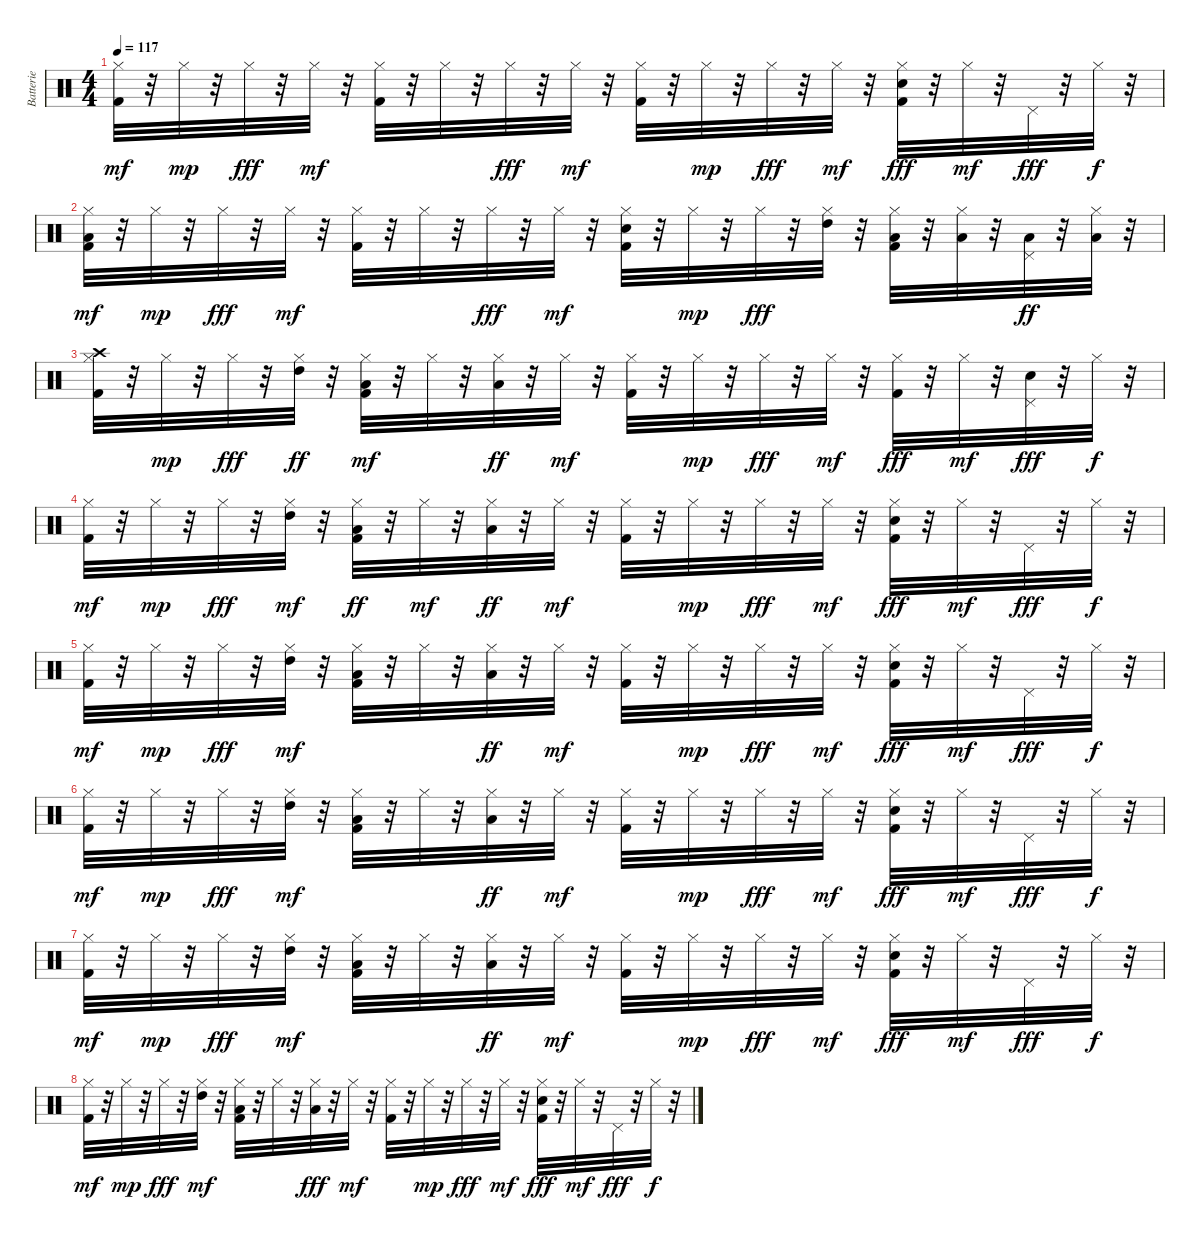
\track ("Batterie" "Batterie") {instrument percussion}
\staff {score}
\articulation defaults
\ts (4 4)
\tempo 117
\clef neutral
\ks c
("Kick (hit) 2" "Hi-Hat (closed)").32{dy mf} r.32 "Hi-Hat (closed)".32{dy mp} r.32 "Hi-Hat (closed)".32{dy fff} r.32 "Hi-Hat (closed)".32{dy mf} r.32 ("Kick (hit) 2" "Hi-Hat (closed)").32 r.32 "Hi-Hat (closed)".32 r.32 "Hi-Hat (closed)".32{dy fff} r.32 "Hi-Hat (closed)".32{dy mf} r.32 ("Kick (hit) 2" "Hi-Hat (closed)").32 r.32 "Hi-Hat (closed)".32{dy mp} r.32 "Hi-Hat (closed)".32{dy fff} r.32 "Hi-Hat (closed)".32{dy mf} r.32 ("Kick (hit) 2" "Electric Snare (hit)" "Hi-Hat (closed)").32{dy fff} r.32 "Hi-Hat (closed)".32{dy mf} r.32 "Pedal Hi-Hat (hit)".32{dy fff} r.32 "Hi-Hat (closed)".32{dy f} r.32 |
("Kick (hit) 2" "Hi-Hat (closed)" "Low Floor Tom (hit)").32{dy mf} r.32 "Hi-Hat (closed)".32{dy mp} r.32 "Hi-Hat (closed)".32{dy fff} r.32 "Hi-Hat (closed)".32{dy mf} r.32 ("Kick (hit) 2" "Hi-Hat (closed)").32 r.32 "Hi-Hat (closed)".32 r.32 "Hi-Hat (closed)".32{dy fff} r.32 "Hi-Hat (closed)".32{dy mf} r.32 ("Kick (hit) 2" "Electric Snare (hit)" "Hi-Hat (closed)").32 r.32 "Hi-Hat (closed)".32{dy mp} r.32 "Hi-Hat (closed)".32{dy fff} r.32 ("Hi-Hat (closed)" "High Tom (hit)").32 r.32 ("Kick (hit) 2" "Hi-Hat (closed)" "Low Tom (hit)").32 r.32 ("Hi-Hat (closed)" "Low Tom (hit)").32 r.32 ("Pedal Hi-Hat (hit)" "Low Floor Tom (hit)").32{dy ff} r.32 ("Hi-Hat (closed)" "Low Floor Tom (hit)").32 r.32 |
("Kick (hit) 2" "Hi-Hat (closed)" "Crash high (hit)").32 r.32 "Hi-Hat (closed)".32{dy mp} r.32 "Hi-Hat (closed)".32{dy fff} r.32 ("Hi-Hat (closed)" "High Tom (hit)").32{dy ff} r.32 ("Kick (hit) 2" "Hi-Hat (closed)" "Low Tom (hit)").32{dy mf} r.32 "Hi-Hat (closed)".32 r.32 ("Hi-Hat (closed)" "Low Floor Tom (hit)").32{dy ff} r.32 "Hi-Hat (closed)".32{dy mf} r.32 ("Kick (hit) 2" "Hi-Hat (closed)").32 r.32 "Hi-Hat (closed)".32{dy mp} r.32 "Hi-Hat (closed)".32{dy fff} r.32 "Hi-Hat (closed)".32{dy mf} r.32 ("Kick (hit) 2" "Hi-Hat (closed)").32{dy fff} r.32 "Hi-Hat (closed)".32{dy mf} r.32 ("Electric Snare (hit)" "Pedal Hi-Hat (hit)").32{dy fff} r.32 "Hi-Hat (closed)".32{dy f} r.32 |
("Kick (hit) 2" "Hi-Hat (closed)").32{dy mf} r.32 "Hi-Hat (closed)".32{dy mp} r.32 "Hi-Hat (closed)".32{dy fff} r.32 ("Hi-Hat (closed)" "High Tom (hit)").32{dy mf} r.32 ("Kick (hit) 2" "Hi-Hat (closed)" "Low Tom (hit)").32{dy ff} r.32 "Hi-Hat (closed)".32{dy mf} r.32 ("Hi-Hat (closed)" "Low Floor Tom (hit)").32{dy ff} r.32 "Hi-Hat (closed)".32{dy mf} r.32 ("Kick (hit) 2" "Hi-Hat (closed)").32 r.32 "Hi-Hat (closed)".32{dy mp} r.32 "Hi-Hat (closed)".32{dy fff} r.32 "Hi-Hat (closed)".32{dy mf} r.32 ("Kick (hit) 2" "Electric Snare (hit)" "Hi-Hat (closed)").32{dy fff} r.32 "Hi-Hat (closed)".32{dy mf} r.32 "Pedal Hi-Hat (hit)".32{dy fff} r.32 "Hi-Hat (closed)".32{dy f} r.32 |
("Kick (hit) 2" "Hi-Hat (closed)").32{dy mf} r.32 "Hi-Hat (closed)".32{dy mp} r.32 "Hi-Hat (closed)".32{dy fff} r.32 ("Hi-Hat (closed)" "High Tom (hit)").32{dy mf} r.32 ("Kick (hit) 2" "Hi-Hat (closed)" "Low Tom (hit)").32 r.32 "Hi-Hat (closed)".32 r.32 ("Hi-Hat (closed)" "Low Floor Tom (hit)").32{dy ff} r.32 "Hi-Hat (closed)".32{dy mf} r.32 ("Kick (hit) 2" "Hi-Hat (closed)").32 r.32 "Hi-Hat (closed)".32{dy mp} r.32 "Hi-Hat (closed)".32{dy fff} r.32 "Hi-Hat (closed)".32{dy mf} r.32 ("Kick (hit) 2" "Electric Snare (hit)" "Hi-Hat (closed)").32{dy fff} r.32 "Hi-Hat (closed)".32{dy mf} r.32 "Pedal Hi-Hat (hit)".32{dy fff} r.32 "Hi-Hat (closed)".32{dy f} r.32 |
("Kick (hit) 2" "Hi-Hat (closed)").32{dy mf} r.32 "Hi-Hat (closed)".32{dy mp} r.32 "Hi-Hat (closed)".32{dy fff} r.32 ("Hi-Hat (closed)" "High Tom (hit)").32{dy mf} r.32 ("Kick (hit) 2" "Hi-Hat (closed)" "Low Tom (hit)").32 r.32 "Hi-Hat (closed)".32 r.32 ("Hi-Hat (closed)" "Low Floor Tom (hit)").32{dy ff} r.32 "Hi-Hat (closed)".32{dy mf} r.32 ("Kick (hit) 2" "Hi-Hat (closed)").32 r.32 "Hi-Hat (closed)".32{dy mp} r.32 "Hi-Hat (closed)".32{dy fff} r.32 "Hi-Hat (closed)".32{dy mf} r.32 ("Kick (hit) 2" "Electric Snare (hit)" "Hi-Hat (closed)").32{dy fff} r.32 "Hi-Hat (closed)".32{dy mf} r.32 "Pedal Hi-Hat (hit)".32{dy fff} r.32 "Hi-Hat (closed)".32{dy f} r.32 |
("Kick (hit) 2" "Hi-Hat (closed)").32{dy mf} r.32 "Hi-Hat (closed)".32{dy mp} r.32 "Hi-Hat (closed)".32{dy fff} r.32 ("Hi-Hat (closed)" "High Tom (hit)").32{dy mf} r.32 ("Kick (hit) 2" "Hi-Hat (closed)" "Low Tom (hit)").32 r.32 "Hi-Hat (closed)".32 r.32 ("Hi-Hat (closed)" "Low Floor Tom (hit)").32{dy ff} r.32 "Hi-Hat (closed)".32{dy mf} r.32 ("Kick (hit) 2" "Hi-Hat (closed)").32 r.32 "Hi-Hat (closed)".32{dy mp} r.32 "Hi-Hat (closed)".32{dy fff} r.32 "Hi-Hat (closed)".32{dy mf} r.32 ("Kick (hit) 2" "Electric Snare (hit)" "Hi-Hat (closed)").32{dy fff} r.32 "Hi-Hat (closed)".32{dy mf} r.32 "Pedal Hi-Hat (hit)".32{dy fff} r.32 "Hi-Hat (closed)".32{dy f} r.32 |
("Kick (hit) 2" "Hi-Hat (closed)").32{dy mf} r.32 "Hi-Hat (closed)".32{dy mp} r.32 "Hi-Hat (closed)".32{dy fff} r.32 ("Hi-Hat (closed)" "High Tom (hit)").32{dy mf} r.32 ("Kick (hit) 2" "Hi-Hat (closed)" "Low Tom (hit)").32 r.32 "Hi-Hat (closed)".32 r.32 ("Hi-Hat (closed)" "Low Floor Tom (hit)").32{dy fff} r.32 "Hi-Hat (closed)".32{dy mf} r.32 ("Kick (hit) 2" "Hi-Hat (closed)").32 r.32 "Hi-Hat (closed)".32{dy mp} r.32 "Hi-Hat (closed)".32{dy fff} r.32 "Hi-Hat (closed)".32{dy mf} r.32 ("Kick (hit) 2" "Electric Snare (hit)" "Hi-Hat (closed)").32{dy fff} r.32 "Hi-Hat (closed)".32{dy mf} r.32 "Pedal Hi-Hat (hit)".32{dy fff} r.32 "Hi-Hat (closed)".32{dy f} r.32
